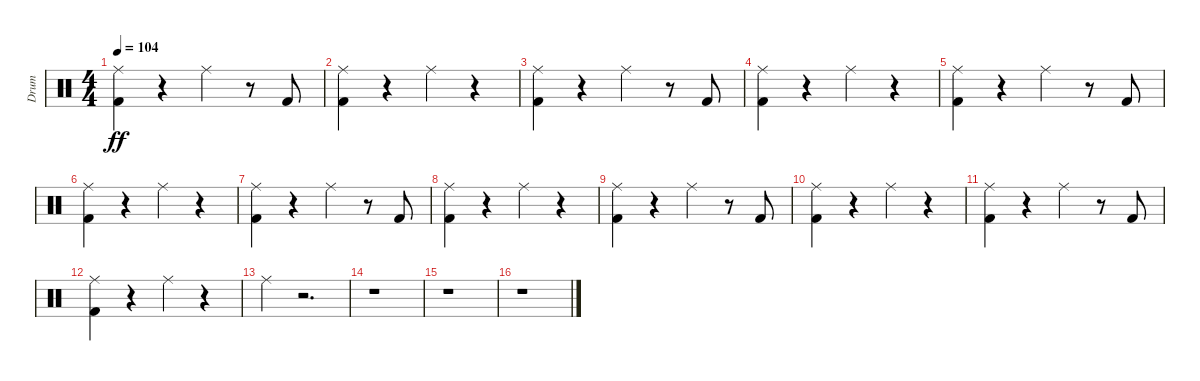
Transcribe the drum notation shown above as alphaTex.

\track ("Drum" "Drum") {instrument percussion}
\staff {score}
\articulation defaults
\ts (4 4)
\tempo 104
\clef neutral
\ks c
("Ride (middle)" "Kick (hit) 2").4{dy ff} r.4 "Ride (middle)".4 r.8 "Kick (hit) 2".8 |
("Ride (middle)" "Kick (hit) 2").4 r.4 "Ride (middle)".4 r.4 |
("Ride (middle)" "Kick (hit) 2").4 r.4 "Ride (middle)".4 r.8 "Kick (hit) 2".8 |
("Ride (middle)" "Kick (hit) 2").4 r.4 "Ride (middle)".4 r.4 |
("Ride (middle)" "Kick (hit) 2").4 r.4 "Ride (middle)".4 r.8 "Kick (hit) 2".8 |
("Ride (middle)" "Kick (hit) 2").4 r.4 "Ride (middle)".4 r.4 |
("Ride (middle)" "Kick (hit) 2").4 r.4 "Ride (middle)".4 r.8 "Kick (hit) 2".8 |
("Ride (middle)" "Kick (hit) 2").4 r.4 "Ride (middle)".4 r.4 |
("Ride (middle)" "Kick (hit) 2").4 r.4 "Ride (middle)".4 r.8 "Kick (hit) 2".8 |
("Ride (middle)" "Kick (hit) 2").4 r.4 "Ride (middle)".4 r.4 |
("Ride (middle)" "Kick (hit) 2").4 r.4 "Ride (middle)".4 r.8 "Kick (hit) 2".8 |
("Ride (middle)" "Kick (hit) 2").4 r.4 "Ride (middle)".4 r.4 |
"Ride (middle)".4 r.2{d} |
r.1 |
r.1 |
r.1
